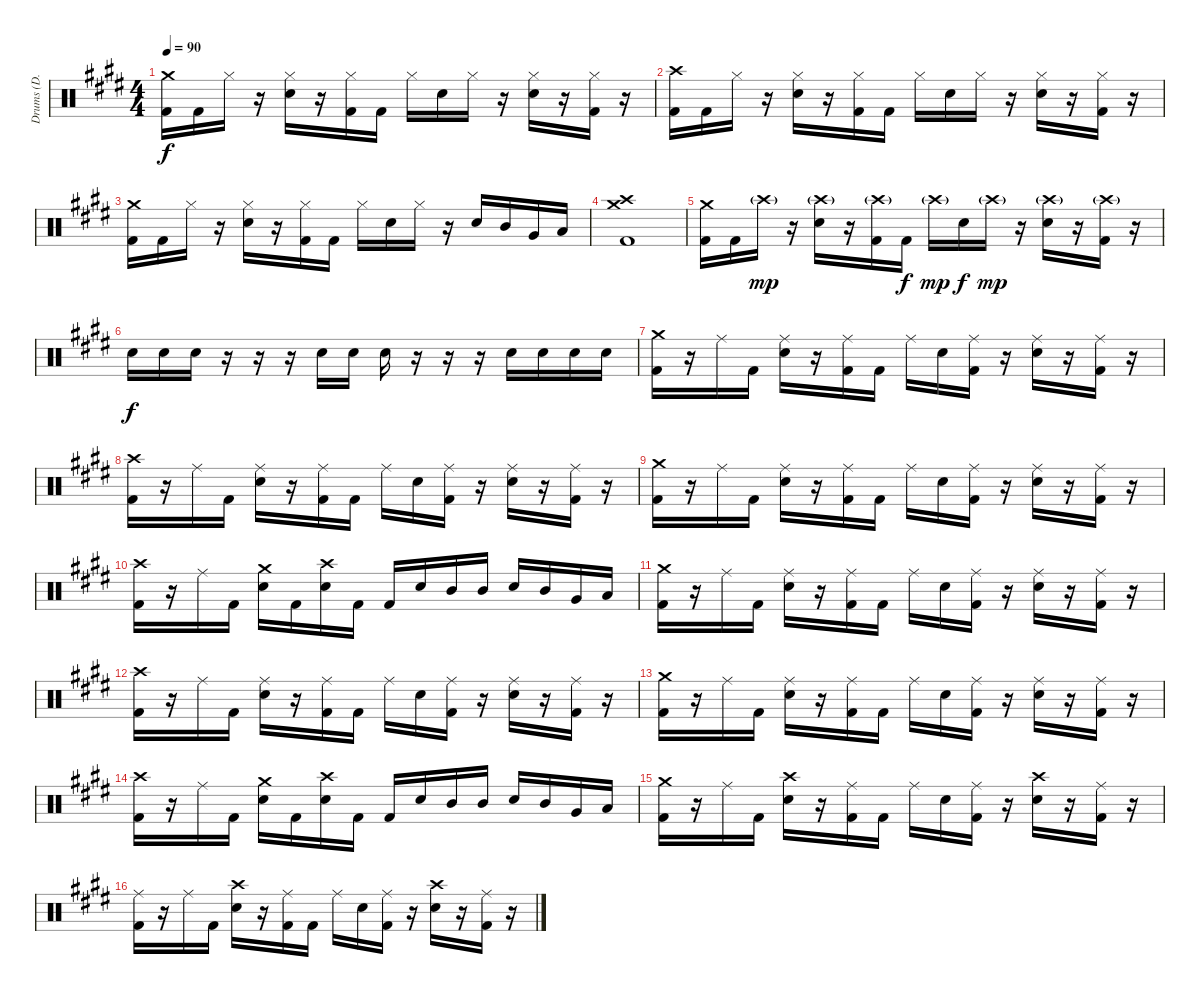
\track ("Drums (D. Adair)" "Drums (D. ") {instrument percussion}
\staff {score}
\articulation defaults
\ts (4 4)
\tempo 90
\clef neutral
\ks e
("Crash medium (hit)" "Kick (hit) 2").16{dy f} "Kick (hit) 2".16 "Hi-Hat (closed)".16 r.16 ("Hi-Hat (closed)" "Snare (hit) 2").16 r.16 ("Hi-Hat (closed)" "Kick (hit) 2").16 "Kick (hit) 2".16 "Hi-Hat (closed)".16 "Snare (hit) 2".16 "Hi-Hat (closed)".16 r.16 ("Hi-Hat (closed)" "Snare (hit) 2").16 r.16 ("Hi-Hat (closed)" "Kick (hit) 2").16 r.16 |
("Crash high (hit)" "Kick (hit) 2").16 "Kick (hit) 2".16 "Hi-Hat (closed)".16 r.16 ("Hi-Hat (closed)" "Snare (hit) 2").16 r.16 ("Hi-Hat (closed)" "Kick (hit) 2").16 "Kick (hit) 2".16 "Hi-Hat (closed)".16 "Snare (hit) 2".16 "Hi-Hat (closed)".16 r.16 ("Hi-Hat (closed)" "Snare (hit) 2").16 r.16 ("Hi-Hat (closed)" "Kick (hit) 2").16 r.16 |
("Crash medium (hit)" "Kick (hit) 2").16 "Kick (hit) 2".16 "Hi-Hat (closed)".16 r.16 ("Hi-Hat (closed)" "Snare (hit) 2").16 r.16 ("Hi-Hat (closed)" "Kick (hit) 2").16 "Kick (hit) 2".16 "Hi-Hat (closed)".16 "Snare (hit) 2".16 "Hi-Hat (closed)".16 r.16 "Snare (hit) 2".16 "Mid Tom (hit)".16 "Very Low Tom (hit)".16 "Low Floor Tom (hit)".16 |
("Crash high (hit)" "Crash medium (hit)" "Kick (hit) 2").1 |
("Crash medium (hit)" "Kick (hit) 2").16 "Kick (hit) 2".16 "Crash high (hit)"{g}.16{dy mp} r.16 ("Crash high (hit)"{g} "Snare (hit) 2").16 r.16 ("Crash high (hit)"{g} "Kick (hit) 2").16 "Kick (hit) 2".16{dy f} "Crash high (hit)"{g}.16{dy mp} "Snare (hit) 2".16{dy f} "Crash high (hit)"{g}.16{dy mp} r.16 ("Crash high (hit)"{g} "Snare (hit) 2").16 r.16 ("Crash high (hit)"{g} "Kick (hit) 2").16 r.16 |
"Snare (hit) 2".16{dy f} "Snare (hit) 2".16 "Snare (hit) 2".16 r.16 r.16 r.16 "Snare (hit) 2".16 "Snare (hit) 2".16 "Snare (hit) 2".16 r.16 r.16 r.16 "Snare (hit) 2".16 "Snare (hit) 2".16 "Snare (hit) 2".16 "Snare (hit) 2".16 |
("Crash medium (hit)" "Kick (hit) 2").16 r.16 "Ride (middle)".16 "Kick (hit) 2".16 ("Ride (middle)" "Snare (hit) 2").16 r.16 ("Ride (middle)" "Kick (hit) 2").16 "Kick (hit) 2".16 "Ride (middle)".16 "Snare (hit) 2".16 ("Ride (middle)" "Kick (hit) 2").16 r.16 ("Ride (middle)" "Snare (hit) 2").16 r.16 ("Ride (middle)" "Kick (hit) 2").16 r.16 |
("Crash high (hit)" "Kick (hit) 2").16 r.16 "Ride (middle)".16 "Kick (hit) 2".16 ("Ride (middle)" "Snare (hit) 2").16 r.16 ("Ride (middle)" "Kick (hit) 2").16 "Kick (hit) 2".16 "Ride (middle)".16 "Snare (hit) 2".16 ("Ride (middle)" "Kick (hit) 2").16 r.16 ("Ride (middle)" "Snare (hit) 2").16 r.16 ("Ride (middle)" "Kick (hit) 2").16 r.16 |
("Crash medium (hit)" "Kick (hit) 2").16 r.16 "Ride (middle)".16 "Kick (hit) 2".16 ("Ride (middle)" "Snare (hit) 2").16 r.16 ("Ride (middle)" "Kick (hit) 2").16 "Kick (hit) 2".16 "Ride (middle)".16 "Snare (hit) 2".16 ("Ride (middle)" "Kick (hit) 2").16 r.16 ("Ride (middle)" "Snare (hit) 2").16 r.16 ("Ride (middle)" "Kick (hit) 2").16 r.16 |
("Crash high (hit)" "Kick (hit) 2").16 r.16 "Ride (middle)".16 "Kick (hit) 2".16 ("Crash medium (hit)" "Snare (hit) 2").16 "Kick (hit) 2".16 ("Crash high (hit)" "Snare (hit) 2").16 "Kick (hit) 2".16 "Kick (hit) 2".16 "Snare (hit) 2".16 "Mid Tom (hit)".16 "Mid Tom (hit)".16 "Snare (hit) 2".16 "Mid Tom (hit)".16 "Very Low Tom (hit)".16 "Low Floor Tom (hit)".16 |
("Crash medium (hit)" "Kick (hit) 2").16 r.16 "Ride (middle)".16 "Kick (hit) 2".16 ("Ride (middle)" "Snare (hit) 2").16 r.16 ("Ride (middle)" "Kick (hit) 2").16 "Kick (hit) 2".16 "Ride (middle)".16 "Snare (hit) 2".16 ("Ride (middle)" "Kick (hit) 2").16 r.16 ("Ride (middle)" "Snare (hit) 2").16 r.16 ("Ride (middle)" "Kick (hit) 2").16 r.16 |
("Crash high (hit)" "Kick (hit) 2").16 r.16 "Ride (middle)".16 "Kick (hit) 2".16 ("Ride (middle)" "Snare (hit) 2").16 r.16 ("Ride (middle)" "Kick (hit) 2").16 "Kick (hit) 2".16 "Ride (middle)".16 "Snare (hit) 2".16 ("Ride (middle)" "Kick (hit) 2").16 r.16 ("Ride (middle)" "Snare (hit) 2").16 r.16 ("Ride (middle)" "Kick (hit) 2").16 r.16 |
("Crash medium (hit)" "Kick (hit) 2").16 r.16 "Ride (middle)".16 "Kick (hit) 2".16 ("Ride (middle)" "Snare (hit) 2").16 r.16 ("Ride (middle)" "Kick (hit) 2").16 "Kick (hit) 2".16 "Ride (middle)".16 "Snare (hit) 2".16 ("Ride (middle)" "Kick (hit) 2").16 r.16 ("Ride (middle)" "Snare (hit) 2").16 r.16 ("Ride (middle)" "Kick (hit) 2").16 r.16 |
("Crash high (hit)" "Kick (hit) 2").16 r.16 "Ride (middle)".16 "Kick (hit) 2".16 ("Crash medium (hit)" "Snare (hit) 2").16 "Kick (hit) 2".16 ("Crash high (hit)" "Snare (hit) 2").16 "Kick (hit) 2".16 "Kick (hit) 2".16 "Snare (hit) 2".16 "Mid Tom (hit)".16 "Mid Tom (hit)".16 "Snare (hit) 2".16 "Mid Tom (hit)".16 "Very Low Tom (hit)".16 "Low Floor Tom (hit)".16 |
("Crash medium (hit)" "Kick (hit) 2").16 r.16 "Ride (middle)".16 "Kick (hit) 2".16 ("Crash high (hit)" "Snare (hit) 2").16 r.16 ("Ride (middle)" "Kick (hit) 2").16 "Kick (hit) 2".16 "Ride (middle)".16 "Snare (hit) 2".16 ("Ride (middle)" "Kick (hit) 2").16 r.16 ("Crash high (hit)" "Snare (hit) 2").16 r.16 ("Ride (middle)" "Kick (hit) 2").16 r.16 |
("Ride (middle)" "Kick (hit) 2").16 r.16 "Ride (middle)".16 "Kick (hit) 2".16 ("Crash high (hit)" "Snare (hit) 2").16 r.16 ("Ride (middle)" "Kick (hit) 2").16 "Kick (hit) 2".16 "Ride (middle)".16 "Snare (hit) 2".16 ("Ride (middle)" "Kick (hit) 2").16 r.16 ("Crash high (hit)" "Snare (hit) 2").16 r.16 ("Ride (middle)" "Kick (hit) 2").16 r.16
